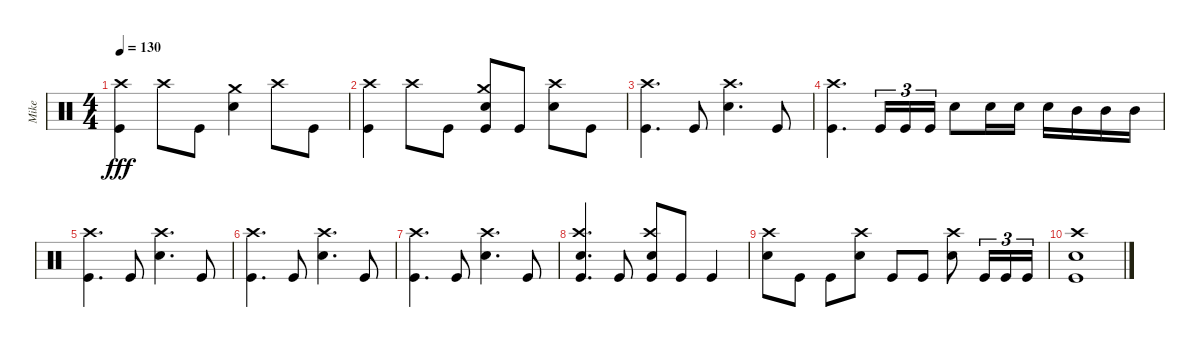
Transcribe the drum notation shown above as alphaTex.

\track ("Mike" "Mike") {instrument percussion}
\staff {score}
\articulation defaults
\ts (4 4)
\tempo 130
\clef neutral
\ks c
("Kick (hit)" "Crash high (hit)").4{dy fff} "Crash high (hit)".8 "Kick (hit)".8 ("Crash medium (hit)" "Snare (hit) 2").4 "Crash high (hit)".8 "Kick (hit)".8 |
("Crash high (hit)" "Kick (hit)").4 "Crash high (hit)".8 "Kick (hit)".8 ("Snare (hit) 2" "Crash medium (hit)" "Kick (hit)").8 "Kick (hit)".8 ("Snare (hit) 2" "Crash high (hit)").8 "Kick (hit)".8 |
("Kick (hit)" "Crash high (hit)").4{d} "Kick (hit)".8 ("Snare (hit) 2" "Crash high (hit)").4{d} "Kick (hit)".8 |
("Kick (hit)" "Crash high (hit)").4{d} "Kick (hit)".16{tu (3 2)} "Kick (hit)".16{tu (3 2)} "Kick (hit)".16{tu (3 2)} "Snare (hit) 2".8 "Snare (hit) 2".16 "Snare (hit) 2".16 "Snare (hit) 2".16 "Mid Tom (hit)".16 "Mid Tom (hit)".16 "Mid Tom (hit)".16 |
("Kick (hit)" "Crash high (hit)").4{d} "Kick (hit)".8 ("Snare (hit) 2" "Crash high (hit)").4{d} "Kick (hit)".8 |
("Kick (hit)" "Crash high (hit)").4{d} "Kick (hit)".8 ("Snare (hit) 2" "Crash high (hit)").4{d} "Kick (hit)".8 |
("Kick (hit)" "Crash high (hit)").4{d} "Kick (hit)".8 ("Snare (hit) 2" "Crash high (hit)").4{d} "Kick (hit)".8 |
("Kick (hit)" "Crash high (hit)" "Snare (hit) 2").4{d} "Kick (hit)".8 ("Snare (hit) 2" "Crash high (hit)" "Kick (hit)").8 "Kick (hit)".8 "Kick (hit)".4 |
("Crash high (hit)" "Snare (hit) 2").8 "Kick (hit)".8 "Kick (hit)".8 ("Snare (hit) 2" "Crash high (hit)").8 "Kick (hit)".8 "Kick (hit)".8 ("Snare (hit) 2" "Crash high (hit)").8 "Kick (hit)".16{tu (3 2)} "Kick (hit)".16{tu (3 2)} "Kick (hit)".16{tu (3 2)} |
("Snare (hit) 2" "Crash high (hit)" "Kick (hit)").1
